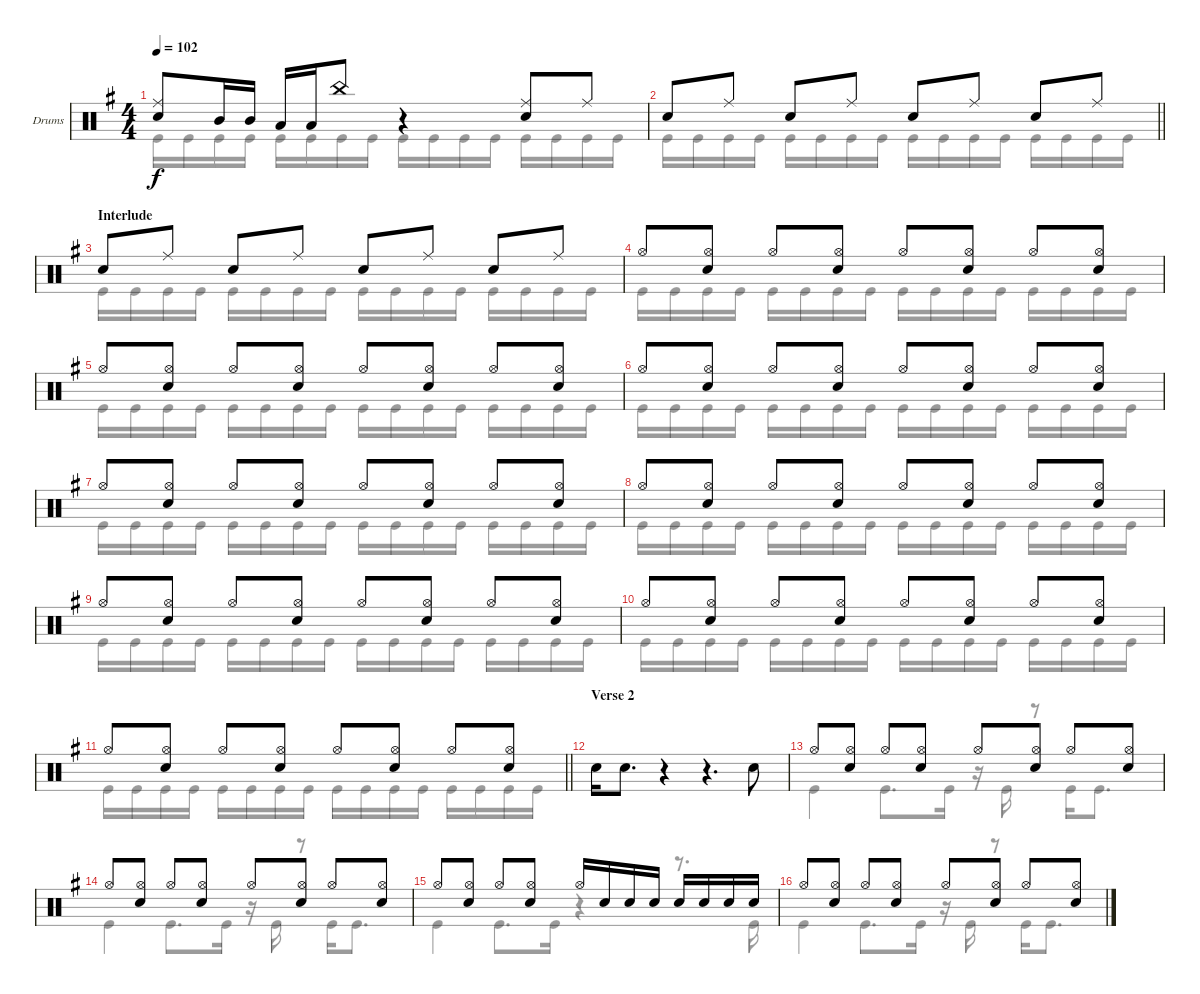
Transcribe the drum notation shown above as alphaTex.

\bracketExtendMode groupsimilarinstruments
\firstSystemTrackNameOrientation horizontal
\otherSystemsTrackNameOrientation horizontal
\track ("Drumkit" "Drums") {instrument percussion}
\staff {score}
\articulation defaults
\voice
\ts (4 4)
\tempo 102
\clef neutral
\ks g
("Ride (middle)" "Snare (hit) 2").8{dy f} "Mid Tom (hit)".16 "Mid Tom (hit)".16 "Low Tom (hit)".16 "Low Tom (hit)".16 "China (hit)".8 r.4 ("Ride (middle)" "Snare (hit) 2").8 "Ride (middle)".8 |
\barLineRight lightlight "Snare (hit) 2".8 "Ride (middle)".8 "Snare (hit) 2".8 "Ride (middle)".8 "Snare (hit) 2".8 "Ride (middle)".8 "Snare (hit) 2".8 "Ride (middle)".8
|
\section ("" "Interlude")
"Snare (hit) 2".8 "Ride (middle)".8 "Snare (hit) 2".8 "Ride (middle)".8 "Snare (hit) 2".8 "Ride (middle)".8 "Snare (hit) 2".8 "Ride (middle)".8 |
"Hi-Hat (open)".8 ("Hi-Hat (open)" "Snare (hit) 2").8 "Hi-Hat (open)".8 ("Hi-Hat (open)" "Snare (hit) 2").8 "Hi-Hat (open)".8 ("Hi-Hat (open)" "Snare (hit) 2").8 "Hi-Hat (open)".8 ("Hi-Hat (open)" "Snare (hit) 2").8 |
"Hi-Hat (open)".8 ("Hi-Hat (open)" "Snare (hit) 2").8 "Hi-Hat (open)".8 ("Hi-Hat (open)" "Snare (hit) 2").8 "Hi-Hat (open)".8 ("Hi-Hat (open)" "Snare (hit) 2").8 "Hi-Hat (open)".8 ("Hi-Hat (open)" "Snare (hit) 2").8 |
"Hi-Hat (open)".8 ("Hi-Hat (open)" "Snare (hit) 2").8 "Hi-Hat (open)".8 ("Hi-Hat (open)" "Snare (hit) 2").8 "Hi-Hat (open)".8 ("Hi-Hat (open)" "Snare (hit) 2").8 "Hi-Hat (open)".8 ("Hi-Hat (open)" "Snare (hit) 2").8 |
"Hi-Hat (open)".8 ("Hi-Hat (open)" "Snare (hit) 2").8 "Hi-Hat (open)".8 ("Hi-Hat (open)" "Snare (hit) 2").8 "Hi-Hat (open)".8 ("Hi-Hat (open)" "Snare (hit) 2").8 "Hi-Hat (open)".8 ("Hi-Hat (open)" "Snare (hit) 2").8 |
"Hi-Hat (open)".8 ("Hi-Hat (open)" "Snare (hit) 2").8 "Hi-Hat (open)".8 ("Hi-Hat (open)" "Snare (hit) 2").8 "Hi-Hat (open)".8 ("Hi-Hat (open)" "Snare (hit) 2").8 "Hi-Hat (open)".8 ("Hi-Hat (open)" "Snare (hit) 2").8 |
"Hi-Hat (open)".8 ("Hi-Hat (open)" "Snare (hit) 2").8 "Hi-Hat (open)".8 ("Hi-Hat (open)" "Snare (hit) 2").8 "Hi-Hat (open)".8 ("Hi-Hat (open)" "Snare (hit) 2").8 "Hi-Hat (open)".8 ("Hi-Hat (open)" "Snare (hit) 2").8 |
"Hi-Hat (open)".8 ("Hi-Hat (open)" "Snare (hit) 2").8 "Hi-Hat (open)".8 ("Hi-Hat (open)" "Snare (hit) 2").8 "Hi-Hat (open)".8 ("Hi-Hat (open)" "Snare (hit) 2").8 "Hi-Hat (open)".8 ("Hi-Hat (open)" "Snare (hit) 2").8 |
\barLineRight lightlight "Hi-Hat (open)".8
("Hi-Hat (open)" "Snare (hit) 2").8 "Hi-Hat (open)".8 ("Hi-Hat (open)" "Snare (hit) 2").8 "Hi-Hat (open)".8 ("Hi-Hat (open)" "Snare (hit) 2").8 "Hi-Hat (open)".8 ("Hi-Hat (open)" "Snare (hit) 2").8 |
\section ("" "Verse 2")
"Snare (hit) 2".16 "Snare (hit) 2".8{d} r.4 r.4{d} "Snare (hit) 2".8 |
"Hi-Hat (open)".8 ("Hi-Hat (open)" "Snare (hit) 2").8 "Hi-Hat (open)".8 ("Hi-Hat (open)" "Snare (hit) 2").8 "Hi-Hat (open)".8 ("Hi-Hat (open)" "Snare (hit) 2").8 "Hi-Hat (open)".8 ("Hi-Hat (open)" "Snare (hit) 2").8 |
"Hi-Hat (open)".8 ("Hi-Hat (open)" "Snare (hit) 2").8 "Hi-Hat (open)".8 ("Hi-Hat (open)" "Snare (hit) 2").8 "Hi-Hat (open)".8 ("Hi-Hat (open)" "Snare (hit) 2").8 "Hi-Hat (open)".8 ("Hi-Hat (open)" "Snare (hit) 2").8 |
"Hi-Hat (open)".8 ("Hi-Hat (open)" "Snare (hit) 2").8 "Hi-Hat (open)".8 ("Hi-Hat (open)" "Snare (hit) 2").8 "Hi-Hat (open)".16 "Snare (hit) 2".16 "Snare (hit) 2".16 "Snare (hit) 2".16 "Snare (hit) 2".16 "Snare (hit) 2".16 "Snare (hit) 2".16 "Snare (hit) 2".16 |
"Hi-Hat (open)".8 ("Hi-Hat (open)" "Snare (hit) 2").8 "Hi-Hat (open)".8 ("Hi-Hat (open)" "Snare (hit) 2").8 "Hi-Hat (open)".8 ("Hi-Hat (open)" "Snare (hit) 2").8 "Hi-Hat (open)".8 ("Hi-Hat (open)" "Snare (hit) 2").8
\voice
\clef neutral
\ottava regular
\simile none
\ks g "Kick (hit)".16{dy f} "Kick (hit)".16 "Kick (hit)".16 "Kick (hit)".16 "Kick (hit)".16 "Kick (hit)".16 "Kick (hit)".16 "Kick (hit)".16 "Kick (hit)".16 "Kick (hit)".16 "Kick (hit)".16 "Kick (hit)".16 "Kick (hit)".16 "Kick (hit)".16 "Kick (hit)".16 "Kick (hit)".16
|
\barLineRight lightlight "Kick (hit)".16 "Kick (hit)".16 "Kick (hit)".16 "Kick (hit)".16 "Kick (hit)".16 "Kick (hit)".16 "Kick (hit)".16 "Kick (hit)".16 "Kick (hit)".16 "Kick (hit)".16 "Kick (hit)".16 "Kick (hit)".16 "Kick (hit)".16 "Kick (hit)".16 "Kick (hit)".16 "Kick (hit)".16
|
"Kick (hit)".16 "Kick (hit)".16 "Kick (hit)".16 "Kick (hit)".16 "Kick (hit)".16 "Kick (hit)".16 "Kick (hit)".16 "Kick (hit)".16 "Kick (hit)".16 "Kick (hit)".16 "Kick (hit)".16 "Kick (hit)".16 "Kick (hit)".16 "Kick (hit)".16 "Kick (hit)".16 "Kick (hit)".16 |
"Kick (hit)".16 "Kick (hit)".16 "Kick (hit)".16 "Kick (hit)".16 "Kick (hit)".16 "Kick (hit)".16 "Kick (hit)".16 "Kick (hit)".16 "Kick (hit)".16 "Kick (hit)".16 "Kick (hit)".16 "Kick (hit)".16 "Kick (hit)".16 "Kick (hit)".16 "Kick (hit)".16 "Kick (hit)".16 |
"Kick (hit)".16 "Kick (hit)".16 "Kick (hit)".16 "Kick (hit)".16 "Kick (hit)".16 "Kick (hit)".16 "Kick (hit)".16 "Kick (hit)".16 "Kick (hit)".16 "Kick (hit)".16 "Kick (hit)".16 "Kick (hit)".16 "Kick (hit)".16 "Kick (hit)".16 "Kick (hit)".16 "Kick (hit)".16 |
"Kick (hit)".16 "Kick (hit)".16 "Kick (hit)".16 "Kick (hit)".16 "Kick (hit)".16 "Kick (hit)".16 "Kick (hit)".16 "Kick (hit)".16 "Kick (hit)".16 "Kick (hit)".16 "Kick (hit)".16 "Kick (hit)".16 "Kick (hit)".16 "Kick (hit)".16 "Kick (hit)".16 "Kick (hit)".16 |
"Kick (hit)".16 "Kick (hit)".16 "Kick (hit)".16 "Kick (hit)".16 "Kick (hit)".16 "Kick (hit)".16 "Kick (hit)".16 "Kick (hit)".16 "Kick (hit)".16 "Kick (hit)".16 "Kick (hit)".16 "Kick (hit)".16 "Kick (hit)".16 "Kick (hit)".16 "Kick (hit)".16 "Kick (hit)".16 |
"Kick (hit)".16 "Kick (hit)".16 "Kick (hit)".16 "Kick (hit)".16 "Kick (hit)".16 "Kick (hit)".16 "Kick (hit)".16 "Kick (hit)".16 "Kick (hit)".16 "Kick (hit)".16 "Kick (hit)".16 "Kick (hit)".16 "Kick (hit)".16 "Kick (hit)".16 "Kick (hit)".16 "Kick (hit)".16 |
"Kick (hit)".16 "Kick (hit)".16 "Kick (hit)".16 "Kick (hit)".16 "Kick (hit)".16 "Kick (hit)".16 "Kick (hit)".16 "Kick (hit)".16 "Kick (hit)".16 "Kick (hit)".16 "Kick (hit)".16 "Kick (hit)".16 "Kick (hit)".16 "Kick (hit)".16 "Kick (hit)".16 "Kick (hit)".16 |
"Kick (hit)".16 "Kick (hit)".16 "Kick (hit)".16 "Kick (hit)".16 "Kick (hit)".16 "Kick (hit)".16 "Kick (hit)".16 "Kick (hit)".16 "Kick (hit)".16 "Kick (hit)".16 "Kick (hit)".16 "Kick (hit)".16 "Kick (hit)".16 "Kick (hit)".16 "Kick (hit)".16 "Kick (hit)".16 |
\barLineRight lightlight "Kick (hit)".16 "Kick (hit)".16 "Kick (hit)".16 "Kick (hit)".16 "Kick (hit)".16 "Kick (hit)".16 "Kick (hit)".16 "Kick (hit)".16 "Kick (hit)".16 "Kick (hit)".16 "Kick (hit)".16 "Kick (hit)".16 "Kick (hit)".16 "Kick (hit)".16 "Kick (hit)".16 "Kick (hit)".16
|
|
"Kick (hit)".4 "Kick (hit)".8{d} "Kick (hit)".16 r.16 "Kick (hit)".16 r.8 "Kick (hit)".16 "Kick (hit)".8{d} |
"Kick (hit)".4 "Kick (hit)".8{d} "Kick (hit)".16 r.16 "Kick (hit)".16 r.8 "Kick (hit)".16 "Kick (hit)".8{d} |
"Kick (hit)".4 "Kick (hit)".8{d} "Kick (hit)".16 r.4 r.8{d} "Kick (hit)".16 |
"Kick (hit)".4 "Kick (hit)".8{d} "Kick (hit)".16 r.16 "Kick (hit)".16 r.8 "Kick (hit)".16 "Kick (hit)".8{d}
